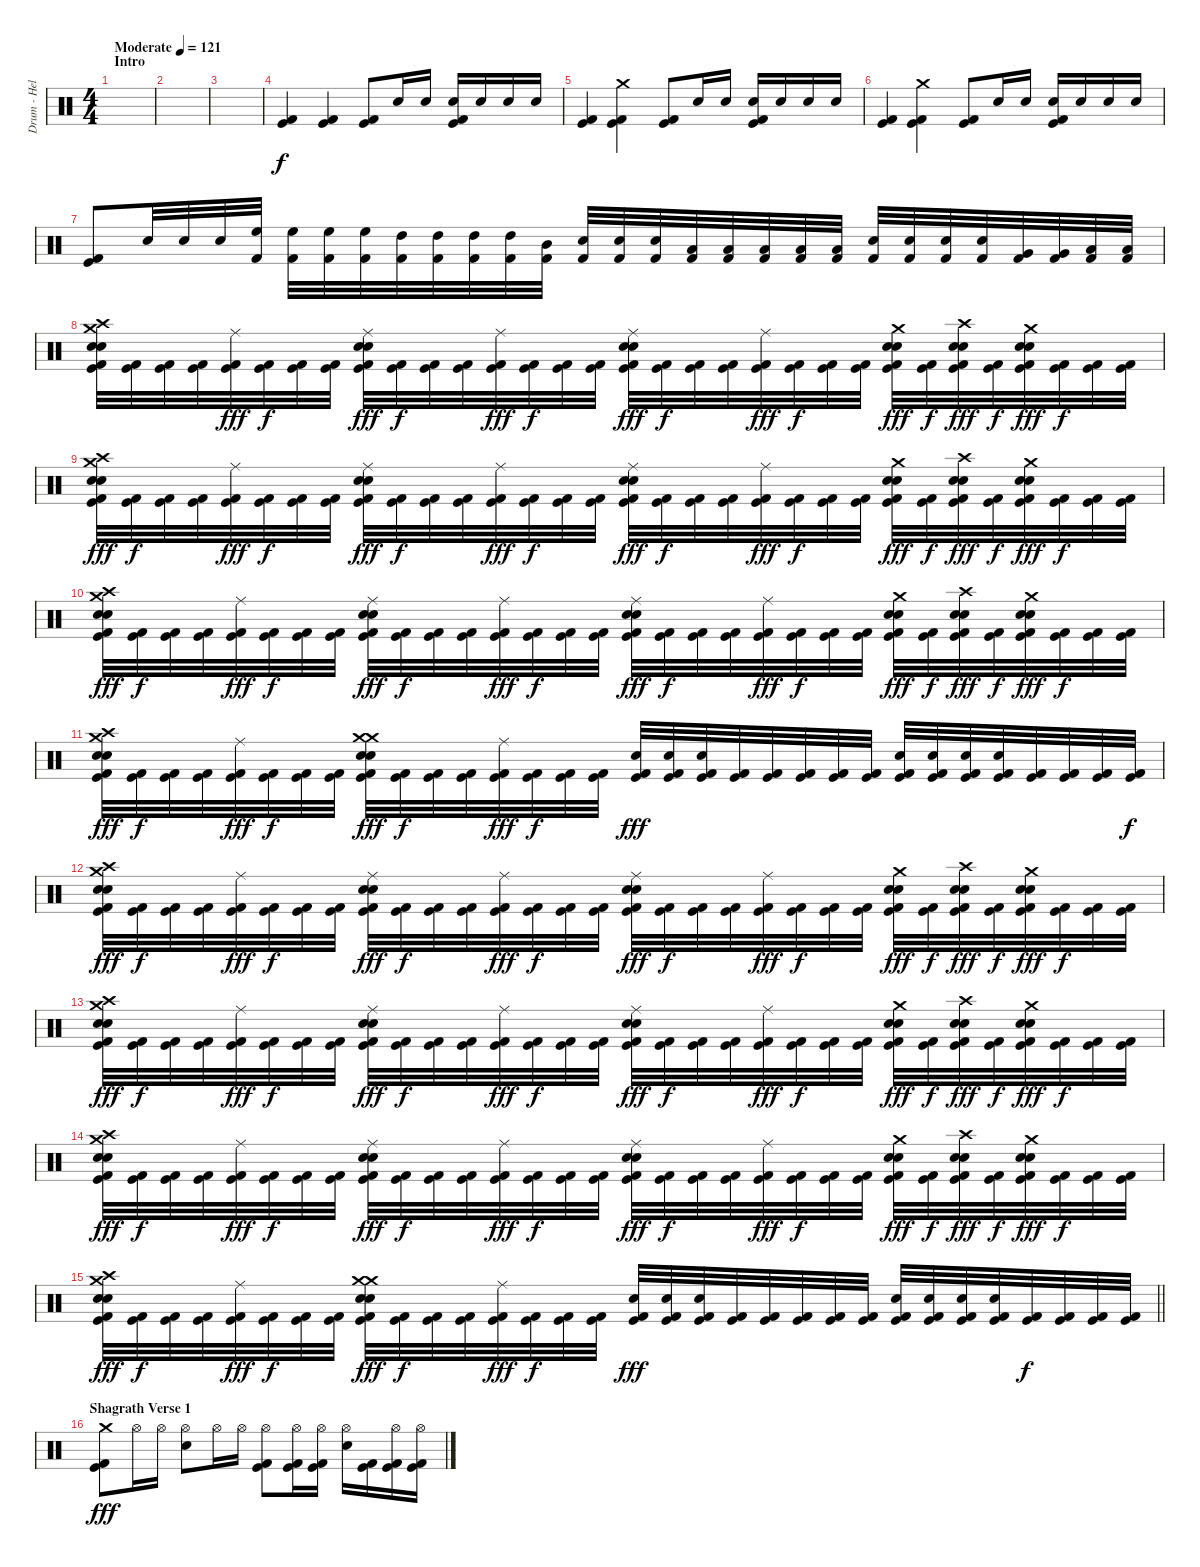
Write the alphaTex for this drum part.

\track ("Drum - Hellhammer" "Drum - Hel") {instrument percussion}
\staff {score}
\articulation defaults
\ts (4 4)
\section ("" "Intro")
\tempo (121 "Moderate")
\clef neutral
\ks c
|
|
|
("Kick (hit) 2" "Kick (hit)").4 ("Kick (hit) 2" "Kick (hit)").4 ("Kick (hit) 2" "Kick (hit)").8 "Electric Snare (hit)".16 "Electric Snare (hit)".16 ("Electric Snare (hit)" "Kick (hit) 2" "Kick (hit)").16 "Electric Snare (hit)".16 "Electric Snare (hit)".16 "Electric Snare (hit)".16 |
("Kick (hit) 2" "Kick (hit)").4 ("Crash medium (hit)" "Kick (hit) 2" "Kick (hit)").4 ("Kick (hit) 2" "Kick (hit)").8 "Electric Snare (hit)".16 "Electric Snare (hit)".16 ("Electric Snare (hit)" "Kick (hit) 2" "Kick (hit)").16 "Electric Snare (hit)".16 "Electric Snare (hit)".16 "Electric Snare (hit)".16 |
("Kick (hit) 2" "Kick (hit)").4 ("Crash medium (hit)" "Kick (hit) 2" "Kick (hit)").4 ("Kick (hit) 2" "Kick (hit)").8 "Electric Snare (hit)".16 "Electric Snare (hit)".16 ("Electric Snare (hit)" "Kick (hit) 2" "Kick (hit)").16 "Electric Snare (hit)".16 "Electric Snare (hit)".16 "Electric Snare (hit)".16 |
("Kick (hit) 2" "Kick (hit)").8 "Electric Snare (hit)".32 "Electric Snare (hit)".32 "Electric Snare (hit)".32 ("Kick (hit) 2" "High Floor Tom (hit)").32 ("Kick (hit) 2" "High Floor Tom (hit)").32 ("Kick (hit) 2" "High Floor Tom (hit)").32 ("Kick (hit) 2" "High Floor Tom (hit)").32 ("Kick (hit) 2" "High Tom (hit)").32 ("Kick (hit) 2" "High Tom (hit)").32 ("Kick (hit) 2" "High Tom (hit)").32 ("Kick (hit) 2" "High Tom (hit)").32 ("Kick (hit) 2" "Mid Tom (hit)").32 ("Kick (hit) 2" "Electric Snare (hit)").32 ("Kick (hit) 2" "Electric Snare (hit)").32 ("Kick (hit) 2" "Electric Snare (hit)").32 ("Kick (hit) 2" "Low Tom (hit)").32 ("Kick (hit) 2" "Low Tom (hit)").32 ("Kick (hit) 2" "Low Tom (hit)").32 ("Kick (hit) 2" "Low Tom (hit)").32 ("Kick (hit) 2" "Low Tom (hit)").32 ("Kick (hit) 2" "Electric Snare (hit)").32 ("Kick (hit) 2" "Electric Snare (hit)").32 ("Kick (hit) 2" "Electric Snare (hit)").32 ("Kick (hit) 2" "Electric Snare (hit)").32 ("Kick (hit) 2" "Very Low Tom (hit)").32 ("Kick (hit) 2" "Very Low Tom (hit)").32 ("Kick (hit) 2" "Low Floor Tom (hit)").32 ("Kick (hit) 2" "Low Floor Tom (hit)").32 |
("Crash high (hit)" "Crash medium (hit)" "Electric Snare (hit)" "Electric Snare (hit)" "Kick (hit) 2" "Kick (hit)").32 ("Kick (hit) 2" "Kick (hit)").32{dy f} ("Kick (hit) 2" "Kick (hit)").32 ("Kick (hit) 2" "Kick (hit)").32 ("Ride (middle)" "Kick (hit) 2" "Kick (hit)").32{dy fff} ("Kick (hit) 2" "Kick (hit)").32{dy f} ("Kick (hit) 2" "Kick (hit)").32 ("Kick (hit) 2" "Kick (hit)").32 ("Ride (middle)" "Electric Snare (hit)" "Electric Snare (hit)" "Kick (hit) 2" "Kick (hit)").32{dy fff} ("Kick (hit) 2" "Kick (hit)").32{dy f} ("Kick (hit) 2" "Kick (hit)").32 ("Kick (hit) 2" "Kick (hit)").32 ("Ride (middle)" "Kick (hit) 2" "Kick (hit)").32{dy fff} ("Kick (hit) 2" "Kick (hit)").32{dy f} ("Kick (hit) 2" "Kick (hit)").32 ("Kick (hit) 2" "Kick (hit)").32 ("Ride (middle)" "Electric Snare (hit)" "Electric Snare (hit)" "Kick (hit) 2" "Kick (hit)").32{dy fff} ("Kick (hit) 2" "Kick (hit)").32{dy f} ("Kick (hit) 2" "Kick (hit)").32 ("Kick (hit) 2" "Kick (hit)").32 ("Ride (middle)" "Kick (hit) 2" "Kick (hit)").32{dy fff} ("Kick (hit) 2" "Kick (hit)").32{dy f} ("Kick (hit) 2" "Kick (hit)").32 ("Kick (hit) 2" "Kick (hit)").32 ("Crash medium (hit)" "Electric Snare (hit)" "Electric Snare (hit)" "Kick (hit) 2" "Kick (hit)").32{dy fff} ("Kick (hit) 2" "Kick (hit)").32{dy f} ("Crash high (hit)" "Electric Snare (hit)" "Electric Snare (hit)" "Kick (hit) 2" "Kick (hit)").32{dy fff} ("Kick (hit) 2" "Kick (hit)").32{dy f} ("Crash medium (hit)" "Electric Snare (hit)" "Electric Snare (hit)" "Kick (hit) 2" "Kick (hit)").32{dy fff} ("Kick (hit) 2" "Kick (hit)").32{dy f} ("Kick (hit) 2" "Kick (hit)").32 ("Kick (hit) 2" "Kick (hit)").32 |
("Crash high (hit)" "Crash medium (hit)" "Electric Snare (hit)" "Electric Snare (hit)" "Kick (hit) 2" "Kick (hit)").32{dy fff} ("Kick (hit) 2" "Kick (hit)").32{dy f} ("Kick (hit) 2" "Kick (hit)").32 ("Kick (hit) 2" "Kick (hit)").32 ("Ride (middle)" "Kick (hit) 2" "Kick (hit)").32{dy fff} ("Kick (hit) 2" "Kick (hit)").32{dy f} ("Kick (hit) 2" "Kick (hit)").32 ("Kick (hit) 2" "Kick (hit)").32 ("Ride (middle)" "Electric Snare (hit)" "Electric Snare (hit)" "Kick (hit) 2" "Kick (hit)").32{dy fff} ("Kick (hit) 2" "Kick (hit)").32{dy f} ("Kick (hit) 2" "Kick (hit)").32 ("Kick (hit) 2" "Kick (hit)").32 ("Ride (middle)" "Kick (hit) 2" "Kick (hit)").32{dy fff} ("Kick (hit) 2" "Kick (hit)").32{dy f} ("Kick (hit) 2" "Kick (hit)").32 ("Kick (hit) 2" "Kick (hit)").32 ("Ride (middle)" "Electric Snare (hit)" "Electric Snare (hit)" "Kick (hit) 2" "Kick (hit)").32{dy fff} ("Kick (hit) 2" "Kick (hit)").32{dy f} ("Kick (hit) 2" "Kick (hit)").32 ("Kick (hit) 2" "Kick (hit)").32 ("Ride (middle)" "Kick (hit) 2" "Kick (hit)").32{dy fff} ("Kick (hit) 2" "Kick (hit)").32{dy f} ("Kick (hit) 2" "Kick (hit)").32 ("Kick (hit) 2" "Kick (hit)").32 ("Crash medium (hit)" "Electric Snare (hit)" "Electric Snare (hit)" "Kick (hit) 2" "Kick (hit)").32{dy fff} ("Kick (hit) 2" "Kick (hit)").32{dy f} ("Crash high (hit)" "Electric Snare (hit)" "Electric Snare (hit)" "Kick (hit) 2" "Kick (hit)").32{dy fff} ("Kick (hit) 2" "Kick (hit)").32{dy f} ("Crash medium (hit)" "Electric Snare (hit)" "Electric Snare (hit)" "Kick (hit) 2" "Kick (hit)").32{dy fff} ("Kick (hit) 2" "Kick (hit)").32{dy f} ("Kick (hit) 2" "Kick (hit)").32 ("Kick (hit) 2" "Kick (hit)").32 |
("Crash high (hit)" "Crash medium (hit)" "Electric Snare (hit)" "Electric Snare (hit)" "Kick (hit) 2" "Kick (hit)").32{dy fff} ("Kick (hit) 2" "Kick (hit)").32{dy f} ("Kick (hit) 2" "Kick (hit)").32 ("Kick (hit) 2" "Kick (hit)").32 ("Ride (middle)" "Kick (hit) 2" "Kick (hit)").32{dy fff} ("Kick (hit) 2" "Kick (hit)").32{dy f} ("Kick (hit) 2" "Kick (hit)").32 ("Kick (hit) 2" "Kick (hit)").32 ("Ride (middle)" "Electric Snare (hit)" "Electric Snare (hit)" "Kick (hit) 2" "Kick (hit)").32{dy fff} ("Kick (hit) 2" "Kick (hit)").32{dy f} ("Kick (hit) 2" "Kick (hit)").32 ("Kick (hit) 2" "Kick (hit)").32 ("Ride (middle)" "Kick (hit) 2" "Kick (hit)").32{dy fff} ("Kick (hit) 2" "Kick (hit)").32{dy f} ("Kick (hit) 2" "Kick (hit)").32 ("Kick (hit) 2" "Kick (hit)").32 ("Ride (middle)" "Electric Snare (hit)" "Electric Snare (hit)" "Kick (hit) 2" "Kick (hit)").32{dy fff} ("Kick (hit) 2" "Kick (hit)").32{dy f} ("Kick (hit) 2" "Kick (hit)").32 ("Kick (hit) 2" "Kick (hit)").32 ("Ride (middle)" "Kick (hit) 2" "Kick (hit)").32{dy fff} ("Kick (hit) 2" "Kick (hit)").32{dy f} ("Kick (hit) 2" "Kick (hit)").32 ("Kick (hit) 2" "Kick (hit)").32 ("Crash medium (hit)" "Electric Snare (hit)" "Electric Snare (hit)" "Kick (hit) 2" "Kick (hit)").32{dy fff} ("Kick (hit) 2" "Kick (hit)").32{dy f} ("Crash high (hit)" "Electric Snare (hit)" "Electric Snare (hit)" "Kick (hit) 2" "Kick (hit)").32{dy fff} ("Kick (hit) 2" "Kick (hit)").32{dy f} ("Crash medium (hit)" "Electric Snare (hit)" "Electric Snare (hit)" "Kick (hit) 2" "Kick (hit)").32{dy fff} ("Kick (hit) 2" "Kick (hit)").32{dy f} ("Kick (hit) 2" "Kick (hit)").32 ("Kick (hit) 2" "Kick (hit)").32 |
("Crash high (hit)" "Crash medium (hit)" "Electric Snare (hit)" "Electric Snare (hit)" "Kick (hit) 2" "Kick (hit)").32{dy fff} ("Kick (hit) 2" "Kick (hit)").32{dy f} ("Kick (hit) 2" "Kick (hit)").32 ("Kick (hit) 2" "Kick (hit)").32 ("Ride (middle)" "Kick (hit) 2" "Kick (hit)").32{dy fff} ("Kick (hit) 2" "Kick (hit)").32{dy f} ("Kick (hit) 2" "Kick (hit)").32 ("Kick (hit) 2" "Kick (hit)").32 ("Crash medium (hit)" "Crash medium (hit)" "Electric Snare (hit)" "Electric Snare (hit)" "Kick (hit) 2" "Kick (hit)").32{dy fff} ("Kick (hit) 2" "Kick (hit)").32{dy f} ("Kick (hit) 2" "Kick (hit)").32 ("Kick (hit) 2" "Kick (hit)").32 ("Ride (middle)" "Kick (hit) 2" "Kick (hit)").32{dy fff} ("Kick (hit) 2" "Kick (hit)").32{dy f} ("Kick (hit) 2" "Kick (hit)").32 ("Kick (hit) 2" "Kick (hit)").32 ("Electric Snare (hit)" "Kick (hit) 2" "Kick (hit)").32{dy fff} ("Electric Snare (hit)" "Kick (hit) 2" "Kick (hit)").32 ("Electric Snare (hit)" "Kick (hit) 2" "Kick (hit)").32 ("Kick (hit) 2" "Kick (hit)").32 ("Kick (hit) 2" "Kick (hit)").32 ("Kick (hit) 2" "Kick (hit)").32 ("Kick (hit) 2" "Kick (hit)").32 ("Kick (hit) 2" "Kick (hit)").32 ("Electric Snare (hit)" "Kick (hit) 2" "Kick (hit)").32 ("Electric Snare (hit)" "Kick (hit) 2" "Kick (hit)").32 ("Electric Snare (hit)" "Kick (hit) 2" "Kick (hit)").32 ("Electric Snare (hit)" "Kick (hit) 2" "Kick (hit)").32 ("Kick (hit) 2" "Kick (hit)").32 ("Kick (hit) 2" "Kick (hit)").32 ("Kick (hit) 2" "Kick (hit)").32 ("Kick (hit) 2" "Kick (hit)").32{dy f} |
("Crash high (hit)" "Crash medium (hit)" "Electric Snare (hit)" "Electric Snare (hit)" "Kick (hit) 2" "Kick (hit)").32{dy fff} ("Kick (hit) 2" "Kick (hit)").32{dy f} ("Kick (hit) 2" "Kick (hit)").32 ("Kick (hit) 2" "Kick (hit)").32 ("Ride (middle)" "Kick (hit) 2" "Kick (hit)").32{dy fff} ("Kick (hit) 2" "Kick (hit)").32{dy f} ("Kick (hit) 2" "Kick (hit)").32 ("Kick (hit) 2" "Kick (hit)").32 ("Ride (middle)" "Electric Snare (hit)" "Electric Snare (hit)" "Kick (hit) 2" "Kick (hit)").32{dy fff} ("Kick (hit) 2" "Kick (hit)").32{dy f} ("Kick (hit) 2" "Kick (hit)").32 ("Kick (hit) 2" "Kick (hit)").32 ("Ride (middle)" "Kick (hit) 2" "Kick (hit)").32{dy fff} ("Kick (hit) 2" "Kick (hit)").32{dy f} ("Kick (hit) 2" "Kick (hit)").32 ("Kick (hit) 2" "Kick (hit)").32 ("Ride (middle)" "Electric Snare (hit)" "Electric Snare (hit)" "Kick (hit) 2" "Kick (hit)").32{dy fff} ("Kick (hit) 2" "Kick (hit)").32{dy f} ("Kick (hit) 2" "Kick (hit)").32 ("Kick (hit) 2" "Kick (hit)").32 ("Ride (middle)" "Kick (hit) 2" "Kick (hit)").32{dy fff} ("Kick (hit) 2" "Kick (hit)").32{dy f} ("Kick (hit) 2" "Kick (hit)").32 ("Kick (hit) 2" "Kick (hit)").32 ("Crash medium (hit)" "Electric Snare (hit)" "Electric Snare (hit)" "Kick (hit) 2" "Kick (hit)").32{dy fff} ("Kick (hit) 2" "Kick (hit)").32{dy f} ("Crash high (hit)" "Electric Snare (hit)" "Electric Snare (hit)" "Kick (hit) 2" "Kick (hit)").32{dy fff} ("Kick (hit) 2" "Kick (hit)").32{dy f} ("Crash medium (hit)" "Electric Snare (hit)" "Electric Snare (hit)" "Kick (hit) 2" "Kick (hit)").32{dy fff} ("Kick (hit) 2" "Kick (hit)").32{dy f} ("Kick (hit) 2" "Kick (hit)").32 ("Kick (hit) 2" "Kick (hit)").32 |
("Crash high (hit)" "Crash medium (hit)" "Electric Snare (hit)" "Electric Snare (hit)" "Kick (hit) 2" "Kick (hit)").32{dy fff} ("Kick (hit) 2" "Kick (hit)").32{dy f} ("Kick (hit) 2" "Kick (hit)").32 ("Kick (hit) 2" "Kick (hit)").32 ("Ride (middle)" "Kick (hit) 2" "Kick (hit)").32{dy fff} ("Kick (hit) 2" "Kick (hit)").32{dy f} ("Kick (hit) 2" "Kick (hit)").32 ("Kick (hit) 2" "Kick (hit)").32 ("Ride (middle)" "Electric Snare (hit)" "Electric Snare (hit)" "Kick (hit) 2" "Kick (hit)").32{dy fff} ("Kick (hit) 2" "Kick (hit)").32{dy f} ("Kick (hit) 2" "Kick (hit)").32 ("Kick (hit) 2" "Kick (hit)").32 ("Ride (middle)" "Kick (hit) 2" "Kick (hit)").32{dy fff} ("Kick (hit) 2" "Kick (hit)").32{dy f} ("Kick (hit) 2" "Kick (hit)").32 ("Kick (hit) 2" "Kick (hit)").32 ("Ride (middle)" "Electric Snare (hit)" "Electric Snare (hit)" "Kick (hit) 2" "Kick (hit)").32{dy fff} ("Kick (hit) 2" "Kick (hit)").32{dy f} ("Kick (hit) 2" "Kick (hit)").32 ("Kick (hit) 2" "Kick (hit)").32 ("Ride (middle)" "Kick (hit) 2" "Kick (hit)").32{dy fff} ("Kick (hit) 2" "Kick (hit)").32{dy f} ("Kick (hit) 2" "Kick (hit)").32 ("Kick (hit) 2" "Kick (hit)").32 ("Crash medium (hit)" "Electric Snare (hit)" "Electric Snare (hit)" "Kick (hit) 2" "Kick (hit)").32{dy fff} ("Kick (hit) 2" "Kick (hit)").32{dy f} ("Crash high (hit)" "Electric Snare (hit)" "Electric Snare (hit)" "Kick (hit) 2" "Kick (hit)").32{dy fff} ("Kick (hit) 2" "Kick (hit)").32{dy f} ("Crash medium (hit)" "Electric Snare (hit)" "Electric Snare (hit)" "Kick (hit) 2" "Kick (hit)").32{dy fff} ("Kick (hit) 2" "Kick (hit)").32{dy f} ("Kick (hit) 2" "Kick (hit)").32 ("Kick (hit) 2" "Kick (hit)").32 |
("Crash high (hit)" "Crash medium (hit)" "Electric Snare (hit)" "Electric Snare (hit)" "Kick (hit) 2" "Kick (hit)").32{dy fff} ("Kick (hit) 2" "Kick (hit)").32{dy f} ("Kick (hit) 2" "Kick (hit)").32 ("Kick (hit) 2" "Kick (hit)").32 ("Ride (middle)" "Kick (hit) 2" "Kick (hit)").32{dy fff} ("Kick (hit) 2" "Kick (hit)").32{dy f} ("Kick (hit) 2" "Kick (hit)").32 ("Kick (hit) 2" "Kick (hit)").32 ("Ride (middle)" "Electric Snare (hit)" "Electric Snare (hit)" "Kick (hit) 2" "Kick (hit)").32{dy fff} ("Kick (hit) 2" "Kick (hit)").32{dy f} ("Kick (hit) 2" "Kick (hit)").32 ("Kick (hit) 2" "Kick (hit)").32 ("Ride (middle)" "Kick (hit) 2" "Kick (hit)").32{dy fff} ("Kick (hit) 2" "Kick (hit)").32{dy f} ("Kick (hit) 2" "Kick (hit)").32 ("Kick (hit) 2" "Kick (hit)").32 ("Ride (middle)" "Electric Snare (hit)" "Electric Snare (hit)" "Kick (hit) 2" "Kick (hit)").32{dy fff} ("Kick (hit) 2" "Kick (hit)").32{dy f} ("Kick (hit) 2" "Kick (hit)").32 ("Kick (hit) 2" "Kick (hit)").32 ("Ride (middle)" "Kick (hit) 2" "Kick (hit)").32{dy fff} ("Kick (hit) 2" "Kick (hit)").32{dy f} ("Kick (hit) 2" "Kick (hit)").32 ("Kick (hit) 2" "Kick (hit)").32 ("Crash medium (hit)" "Electric Snare (hit)" "Electric Snare (hit)" "Kick (hit) 2" "Kick (hit)").32{dy fff} ("Kick (hit) 2" "Kick (hit)").32{dy f} ("Crash high (hit)" "Electric Snare (hit)" "Electric Snare (hit)" "Kick (hit) 2" "Kick (hit)").32{dy fff} ("Kick (hit) 2" "Kick (hit)").32{dy f} ("Crash medium (hit)" "Electric Snare (hit)" "Electric Snare (hit)" "Kick (hit) 2" "Kick (hit)").32{dy fff} ("Kick (hit) 2" "Kick (hit)").32{dy f} ("Kick (hit) 2" "Kick (hit)").32 ("Kick (hit) 2" "Kick (hit)").32 |
\barLineRight lightlight
("Crash high (hit)" "Crash medium (hit)" "Electric Snare (hit)" "Electric Snare (hit)" "Kick (hit) 2" "Kick (hit)").32{dy fff} ("Kick (hit) 2" "Kick (hit)").32{dy f} ("Kick (hit) 2" "Kick (hit)").32 ("Kick (hit) 2" "Kick (hit)").32 ("Ride (middle)" "Kick (hit) 2" "Kick (hit)").32{dy fff} ("Kick (hit) 2" "Kick (hit)").32{dy f} ("Kick (hit) 2" "Kick (hit)").32 ("Kick (hit) 2" "Kick (hit)").32 ("Crash medium (hit)" "Crash medium (hit)" "Electric Snare (hit)" "Electric Snare (hit)" "Kick (hit) 2" "Kick (hit)").32{dy fff} ("Kick (hit) 2" "Kick (hit)").32{dy f} ("Kick (hit) 2" "Kick (hit)").32 ("Kick (hit) 2" "Kick (hit)").32 ("Ride (middle)" "Kick (hit) 2" "Kick (hit)").32{dy fff} ("Kick (hit) 2" "Kick (hit)").32{dy f} ("Kick (hit) 2" "Kick (hit)").32 ("Kick (hit) 2" "Kick (hit)").32 ("Electric Snare (hit)" "Kick (hit) 2" "Kick (hit)").32{dy fff} ("Electric Snare (hit)" "Kick (hit) 2" "Kick (hit)").32 ("Electric Snare (hit)" "Kick (hit) 2" "Kick (hit)").32 ("Kick (hit) 2" "Kick (hit)").32 ("Kick (hit) 2" "Kick (hit)").32 ("Kick (hit) 2" "Kick (hit)").32 ("Kick (hit) 2" "Kick (hit)").32 ("Kick (hit) 2" "Kick (hit)").32 ("Electric Snare (hit)" "Kick (hit) 2" "Kick (hit)").32 ("Electric Snare (hit)" "Kick (hit) 2" "Kick (hit)").32 ("Electric Snare (hit)" "Kick (hit) 2" "Kick (hit)").32 ("Electric Snare (hit)" "Kick (hit) 2" "Kick (hit)").32 ("Kick (hit) 2" "Kick (hit)").32{dy f} ("Kick (hit) 2" "Kick (hit)").32 ("Kick (hit) 2" "Kick (hit)").32 ("Kick (hit) 2" "Kick (hit)").32 |
\section ("" "Shagrath Verse 1")
("Crash medium (hit)" "Kick (hit) 2" "Kick (hit)").8{dy fff} "Hi-Hat (open)".16 "Hi-Hat (open)".16 ("Hi-Hat (open)" "Electric Snare (hit)").8 "Hi-Hat (open)".16 "Hi-Hat (open)".16 ("Hi-Hat (open)" "Kick (hit) 2" "Kick (hit)").8 ("Hi-Hat (open)" "Kick (hit) 2" "Kick (hit)").16 ("Hi-Hat (open)" "Kick (hit) 2" "Kick (hit)").16 ("Hi-Hat (open)" "Electric Snare (hit)").16 ("Kick (hit) 2" "Kick (hit)").16 ("Hi-Hat (open)" "Kick (hit) 2" "Kick (hit)").16 ("Hi-Hat (open)" "Kick (hit) 2" "Kick (hit)").16
